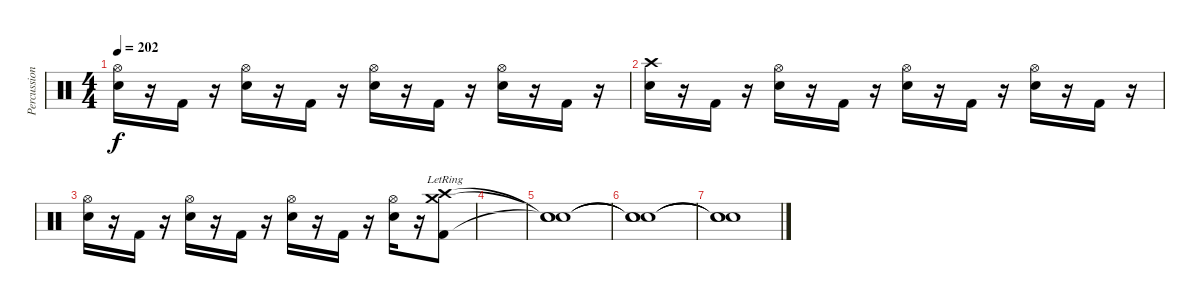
\track ("Percussion" "Percussion") {instrument percussion}
\staff {score}
\articulation defaults
\ts (4 4)
\tempo 202
\clef neutral
\ks c
("Hi-Hat (open)" "Electric Snare (hit)").16{dy f} r.16 "Kick (hit) 2".16 r.16 ("Hi-Hat (open)" "Electric Snare (hit)").16 r.16 "Kick (hit) 2".16 r.16 ("Hi-Hat (open)" "Electric Snare (hit)").16 r.16 "Kick (hit) 2".16 r.16 ("Hi-Hat (open)" "Electric Snare (hit)").16 r.16 "Kick (hit) 2".16 r.16 |
("Crash high (hit)" "Electric Snare (hit)").16 r.16 "Kick (hit) 2".16 r.16 ("Hi-Hat (open)" "Electric Snare (hit)").16 r.16 "Kick (hit) 2".16 r.16 ("Hi-Hat (open)" "Electric Snare (hit)").16 r.16 "Kick (hit) 2".16 r.16 ("Hi-Hat (open)" "Electric Snare (hit)").16 r.16 "Kick (hit) 2".16 r.16 |
("Hi-Hat (open)" "Electric Snare (hit)").16 r.16 "Kick (hit) 2".16 r.16 ("Hi-Hat (open)" "Electric Snare (hit)").16 r.16 "Kick (hit) 2".16 r.16 ("Hi-Hat (open)" "Electric Snare (hit)").16 r.16 "Kick (hit) 2".16 r.16 ("Hi-Hat (open)" "Electric Snare (hit)").16 r.16 ("Crash high (hit)"{lr} "Crash medium (hit)"{lr} "Kick (hit) 2"{lr}).8 |
|
("Snare (hit)"{t} "Snare (hit)"{t} "Snare (hit)"{t}).1 |
("Snare (hit)"{t} "Snare (hit)"{t} "Snare (hit)"{t}).1 |
("Snare (hit)"{t} "Snare (hit)"{t} "Snare (hit)"{t}).1
